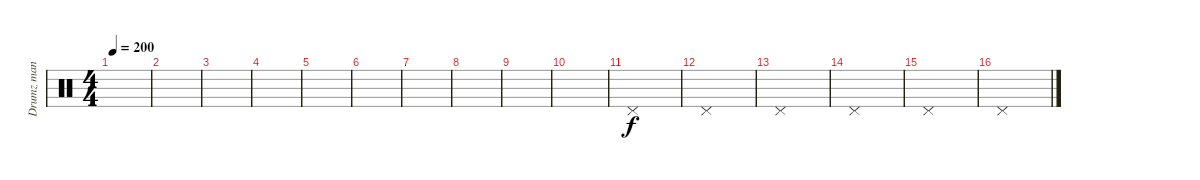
\track ("Drumz man" "Drumz man") {instrument percussion}
\staff {score}
\articulation defaults
\ts (4 4)
\tempo 200
\clef neutral
\ks c
|
|
|
|
|
|
|
|
|
|
"Pedal Hi-Hat (hit)".1 |
"Pedal Hi-Hat (hit)".1 |
"Pedal Hi-Hat (hit)".1 |
"Pedal Hi-Hat (hit)".1 |
"Pedal Hi-Hat (hit)".1 |
"Pedal Hi-Hat (hit)".1
